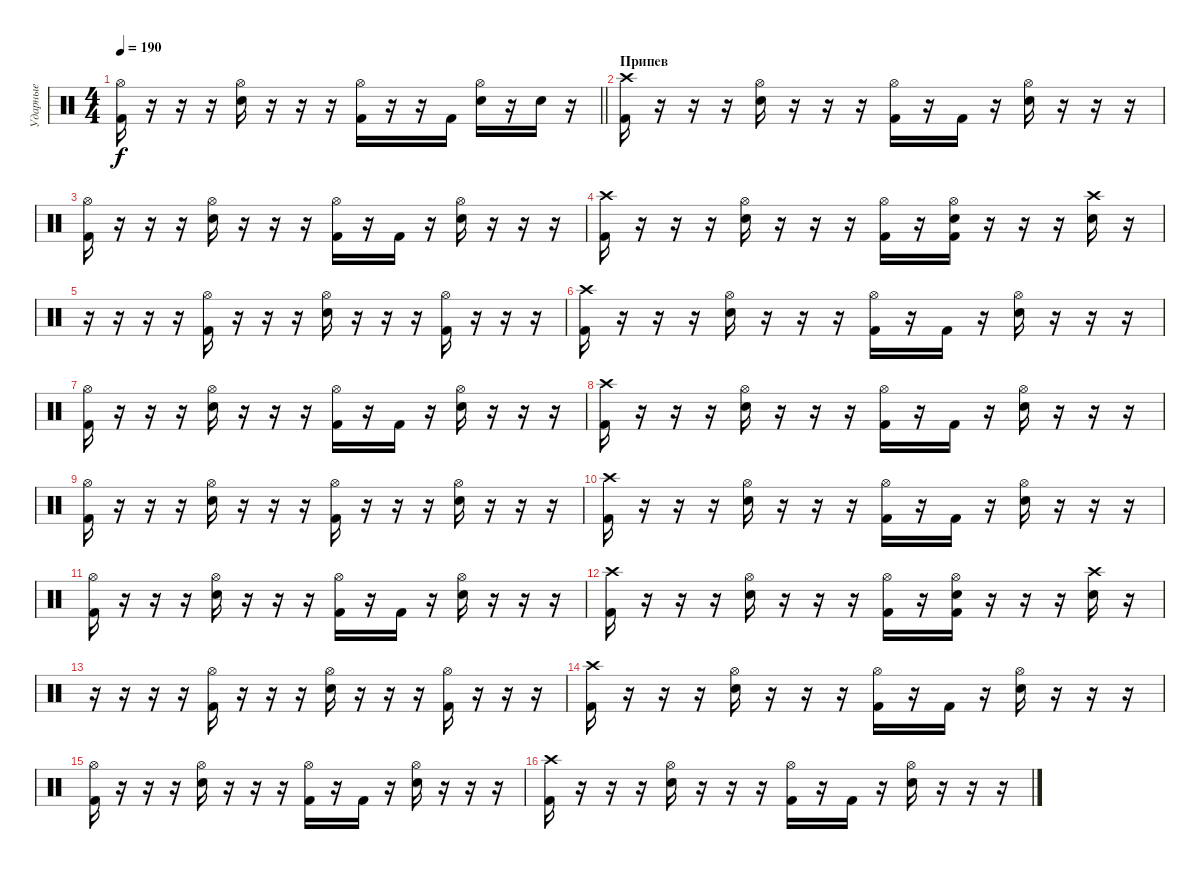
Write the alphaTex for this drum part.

\track ("Ударные" "Ударные") {instrument percussion}
\staff {score}
\articulation defaults
\ts (4 4)
\tempo 190
\clef neutral
\barLineRight lightlight
\ks c
("Hi-Hat (open)" "Kick (hit) 2").16{dy f} r.16 r.16 r.16 ("Hi-Hat (open)" "Electric Snare (hit)").16 r.16 r.16 r.16 ("Hi-Hat (open)" "Kick (hit) 2").16 r.16 r.16 "Kick (hit) 2".16 ("Hi-Hat (open)" "Electric Snare (hit)").16 r.16 "Snare (hit) 2".16 r.16 |
\section ("" "Припев")
("Crash high (hit)" "Kick (hit) 2").16 r.16 r.16 r.16 ("Electric Snare (hit)" "Hi-Hat (open)").16 r.16 r.16 r.16 ("Kick (hit) 2" "Hi-Hat (open)").16 r.16 "Kick (hit) 2".16 r.16 ("Electric Snare (hit)" "Hi-Hat (open)").16 r.16 r.16 r.16 |
("Hi-Hat (open)" "Kick (hit) 2").16 r.16 r.16 r.16 ("Electric Snare (hit)" "Hi-Hat (open)").16 r.16 r.16 r.16 ("Kick (hit) 2" "Hi-Hat (open)").16 r.16 "Kick (hit) 2".16 r.16 ("Electric Snare (hit)" "Hi-Hat (open)").16 r.16 r.16 r.16 |
("Crash high (hit)" "Kick (hit) 2").16 r.16 r.16 r.16 ("Electric Snare (hit)" "Hi-Hat (open)").16 r.16 r.16 r.16 ("Kick (hit) 2" "Hi-Hat (open)").16 r.16 ("Kick (hit) 2" "Hi-Hat (open)" "Electric Snare (hit)").16 r.16 r.16 r.16 ("Crash high (hit)" "Electric Snare (hit)").16 r.16 |
r.16 r.16 r.16 r.16 ("Hi-Hat (open)" "Kick (hit) 2").16 r.16 r.16 r.16 ("Hi-Hat (open)" "Electric Snare (hit)").16 r.16 r.16 r.16 ("Hi-Hat (open)" "Kick (hit) 2").16 r.16 r.16 r.16 |
("Crash high (hit)" "Kick (hit) 2").16 r.16 r.16 r.16 ("Electric Snare (hit)" "Hi-Hat (open)").16 r.16 r.16 r.16 ("Kick (hit) 2" "Hi-Hat (open)").16 r.16 "Kick (hit) 2".16 r.16 ("Electric Snare (hit)" "Hi-Hat (open)").16 r.16 r.16 r.16 |
("Hi-Hat (open)" "Kick (hit) 2").16 r.16 r.16 r.16 ("Electric Snare (hit)" "Hi-Hat (open)").16 r.16 r.16 r.16 ("Kick (hit) 2" "Hi-Hat (open)").16 r.16 "Kick (hit) 2".16 r.16 ("Electric Snare (hit)" "Hi-Hat (open)").16 r.16 r.16 r.16 |
("Crash high (hit)" "Kick (hit) 2").16 r.16 r.16 r.16 ("Electric Snare (hit)" "Hi-Hat (open)").16 r.16 r.16 r.16 ("Kick (hit) 2" "Hi-Hat (open)").16 r.16 "Kick (hit) 2".16 r.16 ("Electric Snare (hit)" "Hi-Hat (open)").16 r.16 r.16 r.16 |
("Hi-Hat (open)" "Kick (hit) 2").16 r.16 r.16 r.16 ("Electric Snare (hit)" "Hi-Hat (open)").16 r.16 r.16 r.16 ("Kick (hit) 2" "Hi-Hat (open)").16 r.16 r.16 r.16 ("Electric Snare (hit)" "Hi-Hat (open)").16 r.16 r.16 r.16 |
("Crash high (hit)" "Kick (hit) 2").16 r.16 r.16 r.16 ("Electric Snare (hit)" "Hi-Hat (open)").16 r.16 r.16 r.16 ("Kick (hit) 2" "Hi-Hat (open)").16 r.16 "Kick (hit) 2".16 r.16 ("Electric Snare (hit)" "Hi-Hat (open)").16 r.16 r.16 r.16 |
("Hi-Hat (open)" "Kick (hit) 2").16 r.16 r.16 r.16 ("Electric Snare (hit)" "Hi-Hat (open)").16 r.16 r.16 r.16 ("Kick (hit) 2" "Hi-Hat (open)").16 r.16 "Kick (hit) 2".16 r.16 ("Electric Snare (hit)" "Hi-Hat (open)").16 r.16 r.16 r.16 |
("Crash high (hit)" "Kick (hit) 2").16 r.16 r.16 r.16 ("Electric Snare (hit)" "Hi-Hat (open)").16 r.16 r.16 r.16 ("Kick (hit) 2" "Hi-Hat (open)").16 r.16 ("Kick (hit) 2" "Hi-Hat (open)" "Electric Snare (hit)").16 r.16 r.16 r.16 ("Crash high (hit)" "Electric Snare (hit)").16 r.16 |
r.16 r.16 r.16 r.16 ("Hi-Hat (open)" "Kick (hit) 2").16 r.16 r.16 r.16 ("Hi-Hat (open)" "Electric Snare (hit)").16 r.16 r.16 r.16 ("Hi-Hat (open)" "Kick (hit) 2").16 r.16 r.16 r.16 |
("Crash high (hit)" "Kick (hit) 2").16 r.16 r.16 r.16 ("Electric Snare (hit)" "Hi-Hat (open)").16 r.16 r.16 r.16 ("Kick (hit) 2" "Hi-Hat (open)").16 r.16 "Kick (hit) 2".16 r.16 ("Electric Snare (hit)" "Hi-Hat (open)").16 r.16 r.16 r.16 |
("Hi-Hat (open)" "Kick (hit) 2").16 r.16 r.16 r.16 ("Electric Snare (hit)" "Hi-Hat (open)").16 r.16 r.16 r.16 ("Kick (hit) 2" "Hi-Hat (open)").16 r.16 "Kick (hit) 2".16 r.16 ("Electric Snare (hit)" "Hi-Hat (open)").16 r.16 r.16 r.16 |
("Crash high (hit)" "Kick (hit) 2").16 r.16 r.16 r.16 ("Electric Snare (hit)" "Hi-Hat (open)").16 r.16 r.16 r.16 ("Kick (hit) 2" "Hi-Hat (open)").16 r.16 "Kick (hit) 2".16 r.16 ("Electric Snare (hit)" "Hi-Hat (open)").16 r.16 r.16 r.16
